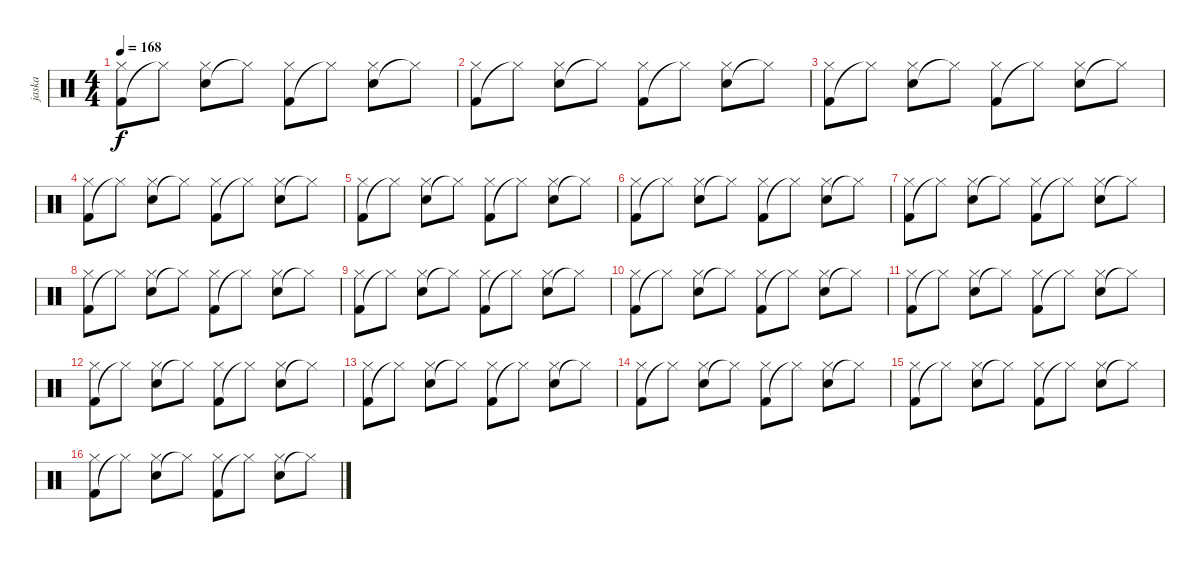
\track ("jaska" "jaska") {instrument percussion}
\staff
\articulation defaults
\ts (4 4)
\tempo 168
\clef neutral
\ks c
("Kick (hit) 2" "Hi-Hat (closed)").8{dy f} "Hi-Hat (closed)"{t}.8 ("Electric Snare (hit)" "Hi-Hat (closed)").8 "Hi-Hat (closed)"{t}.8 ("Kick (hit) 2" "Hi-Hat (closed)").8 "Hi-Hat (closed)"{t}.8 ("Electric Snare (hit)" "Hi-Hat (closed)").8 "Hi-Hat (closed)"{t}.8 |
("Kick (hit) 2" "Hi-Hat (closed)").8 "Hi-Hat (closed)"{t}.8 ("Electric Snare (hit)" "Hi-Hat (closed)").8 "Hi-Hat (closed)"{t}.8 ("Kick (hit) 2" "Hi-Hat (closed)").8 "Hi-Hat (closed)"{t}.8 ("Electric Snare (hit)" "Hi-Hat (closed)").8 "Hi-Hat (closed)"{t}.8 |
("Kick (hit) 2" "Hi-Hat (closed)").8 "Hi-Hat (closed)"{t}.8 ("Electric Snare (hit)" "Hi-Hat (closed)").8 "Hi-Hat (closed)"{t}.8 ("Kick (hit) 2" "Hi-Hat (closed)").8 "Hi-Hat (closed)"{t}.8 ("Electric Snare (hit)" "Hi-Hat (closed)").8 "Hi-Hat (closed)"{t}.8 |
("Kick (hit) 2" "Hi-Hat (closed)").8 "Hi-Hat (closed)"{t}.8 ("Electric Snare (hit)" "Hi-Hat (closed)").8 "Hi-Hat (closed)"{t}.8 ("Kick (hit) 2" "Hi-Hat (closed)").8 "Hi-Hat (closed)"{t}.8 ("Electric Snare (hit)" "Hi-Hat (closed)").8 "Hi-Hat (closed)"{t}.8 |
("Kick (hit) 2" "Hi-Hat (closed)").8 "Hi-Hat (closed)"{t}.8 ("Electric Snare (hit)" "Hi-Hat (closed)").8 "Hi-Hat (closed)"{t}.8 ("Kick (hit) 2" "Hi-Hat (closed)").8 "Hi-Hat (closed)"{t}.8 ("Electric Snare (hit)" "Hi-Hat (closed)").8 "Hi-Hat (closed)"{t}.8 |
("Kick (hit) 2" "Hi-Hat (closed)").8 "Hi-Hat (closed)"{t}.8 ("Electric Snare (hit)" "Hi-Hat (closed)").8 "Hi-Hat (closed)"{t}.8 ("Kick (hit) 2" "Hi-Hat (closed)").8 "Hi-Hat (closed)"{t}.8 ("Electric Snare (hit)" "Hi-Hat (closed)").8 "Hi-Hat (closed)"{t}.8 |
("Kick (hit) 2" "Hi-Hat (closed)").8 "Hi-Hat (closed)"{t}.8 ("Electric Snare (hit)" "Hi-Hat (closed)").8 "Hi-Hat (closed)"{t}.8 ("Kick (hit) 2" "Hi-Hat (closed)").8 "Hi-Hat (closed)"{t}.8 ("Electric Snare (hit)" "Hi-Hat (closed)").8 "Hi-Hat (closed)"{t}.8 |
("Kick (hit) 2" "Hi-Hat (closed)").8 "Hi-Hat (closed)"{t}.8 ("Electric Snare (hit)" "Hi-Hat (closed)").8 "Hi-Hat (closed)"{t}.8 ("Kick (hit) 2" "Hi-Hat (closed)").8 "Hi-Hat (closed)"{t}.8 ("Electric Snare (hit)" "Hi-Hat (closed)").8 "Hi-Hat (closed)"{t}.8 |
("Kick (hit) 2" "Hi-Hat (closed)").8 "Hi-Hat (closed)"{t}.8 ("Electric Snare (hit)" "Hi-Hat (closed)").8 "Hi-Hat (closed)"{t}.8 ("Kick (hit) 2" "Hi-Hat (closed)").8 "Hi-Hat (closed)"{t}.8 ("Electric Snare (hit)" "Hi-Hat (closed)").8 "Hi-Hat (closed)"{t}.8 |
("Kick (hit) 2" "Hi-Hat (closed)").8 "Hi-Hat (closed)"{t}.8 ("Electric Snare (hit)" "Hi-Hat (closed)").8 "Hi-Hat (closed)"{t}.8 ("Kick (hit) 2" "Hi-Hat (closed)").8 "Hi-Hat (closed)"{t}.8 ("Electric Snare (hit)" "Hi-Hat (closed)").8 "Hi-Hat (closed)"{t}.8 |
("Kick (hit) 2" "Hi-Hat (closed)").8 "Hi-Hat (closed)"{t}.8 ("Electric Snare (hit)" "Hi-Hat (closed)").8 "Hi-Hat (closed)"{t}.8 ("Kick (hit) 2" "Hi-Hat (closed)").8 "Hi-Hat (closed)"{t}.8 ("Electric Snare (hit)" "Hi-Hat (closed)").8 "Hi-Hat (closed)"{t}.8 |
("Kick (hit) 2" "Hi-Hat (closed)").8 "Hi-Hat (closed)"{t}.8 ("Electric Snare (hit)" "Hi-Hat (closed)").8 "Hi-Hat (closed)"{t}.8 ("Kick (hit) 2" "Hi-Hat (closed)").8 "Hi-Hat (closed)"{t}.8 ("Electric Snare (hit)" "Hi-Hat (closed)").8 "Hi-Hat (closed)"{t}.8 |
("Kick (hit) 2" "Hi-Hat (closed)").8 "Hi-Hat (closed)"{t}.8 ("Electric Snare (hit)" "Hi-Hat (closed)").8 "Hi-Hat (closed)"{t}.8 ("Kick (hit) 2" "Hi-Hat (closed)").8 "Hi-Hat (closed)"{t}.8 ("Electric Snare (hit)" "Hi-Hat (closed)").8 "Hi-Hat (closed)"{t}.8 |
("Kick (hit) 2" "Hi-Hat (closed)").8 "Hi-Hat (closed)"{t}.8 ("Electric Snare (hit)" "Hi-Hat (closed)").8 "Hi-Hat (closed)"{t}.8 ("Kick (hit) 2" "Hi-Hat (closed)").8 "Hi-Hat (closed)"{t}.8 ("Electric Snare (hit)" "Hi-Hat (closed)").8 "Hi-Hat (closed)"{t}.8 |
("Kick (hit) 2" "Hi-Hat (closed)").8 "Hi-Hat (closed)"{t}.8 ("Electric Snare (hit)" "Hi-Hat (closed)").8 "Hi-Hat (closed)"{t}.8 ("Kick (hit) 2" "Hi-Hat (closed)").8 "Hi-Hat (closed)"{t}.8 ("Electric Snare (hit)" "Hi-Hat (closed)").8 "Hi-Hat (closed)"{t}.8 |
("Kick (hit) 2" "Hi-Hat (closed)").8 "Hi-Hat (closed)"{t}.8 ("Electric Snare (hit)" "Hi-Hat (closed)").8 "Hi-Hat (closed)"{t}.8 ("Kick (hit) 2" "Hi-Hat (closed)").8 "Hi-Hat (closed)"{t}.8 ("Electric Snare (hit)" "Hi-Hat (closed)").8 "Hi-Hat (closed)"{t}.8
